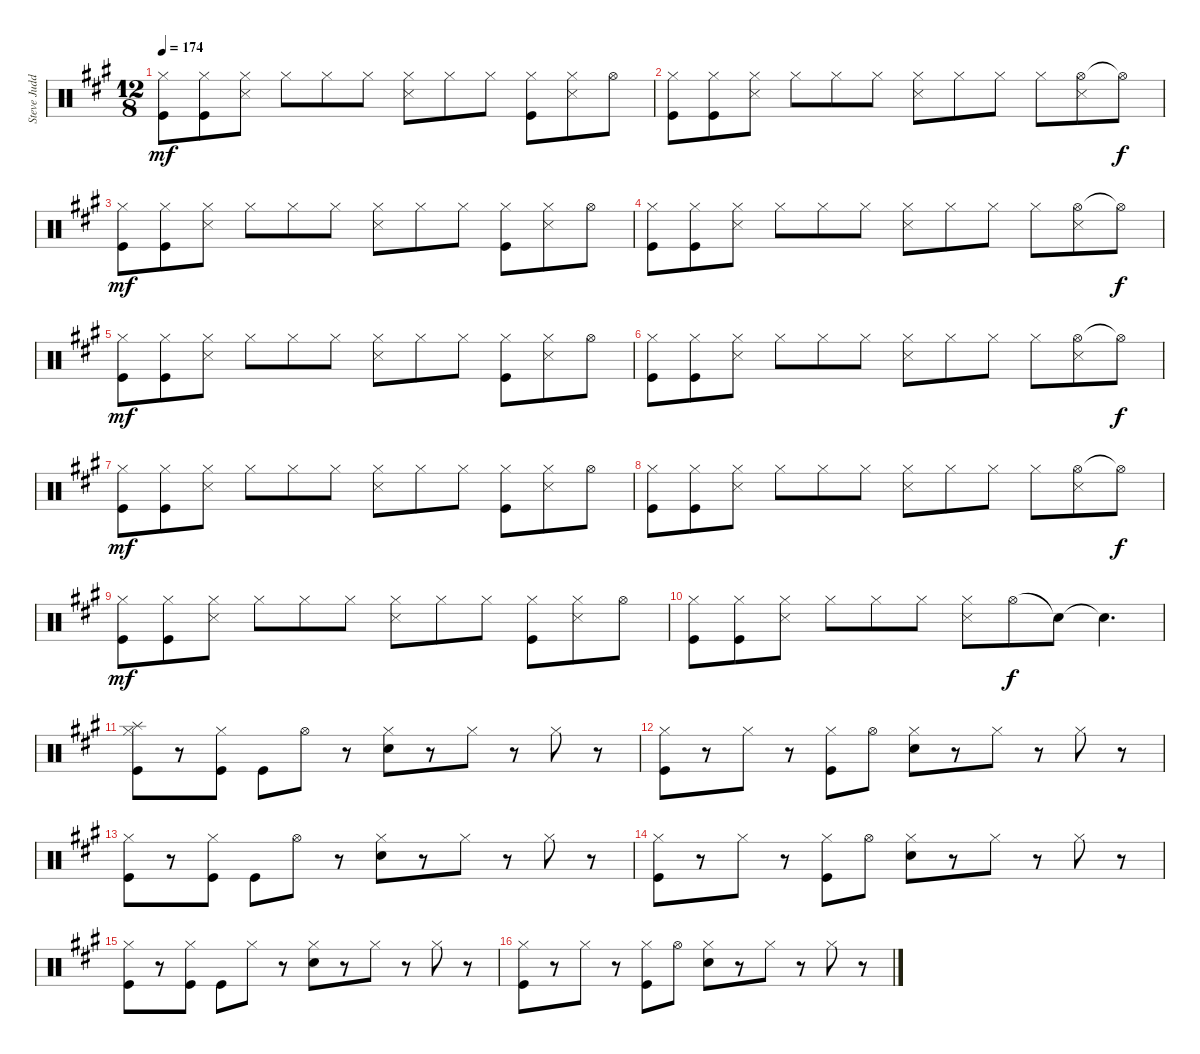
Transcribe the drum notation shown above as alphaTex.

\track ("Steve Judd (Drums)" "Steve Judd") {instrument percussion}
\staff {score}
\articulation defaults
\ts (12 8)
\tempo 174
\clef neutral
\ks a
("Hi-Hat (closed)" "Kick (hit)").8{dy mf} ("Hi-Hat (closed)" "Kick (hit)").8 ("Hi-Hat (closed)" "Snare (side stick) 3").8 "Hi-Hat (closed)".8 "Hi-Hat (closed)".8 "Hi-Hat (closed)".8 ("Hi-Hat (closed)" "Snare (side stick) 3").8 "Hi-Hat (closed)".8 "Hi-Hat (closed)".8 ("Hi-Hat (closed)" "Kick (hit)").8 ("Hi-Hat (closed)" "Snare (side stick) 3").8 "Hi-Hat (open)".8 |
("Hi-Hat (closed)" "Kick (hit)").8 ("Hi-Hat (closed)" "Kick (hit)").8 ("Hi-Hat (closed)" "Snare (side stick) 3").8 "Hi-Hat (closed)".8 "Hi-Hat (closed)".8 "Hi-Hat (closed)".8 ("Hi-Hat (closed)" "Snare (side stick) 3").8 "Hi-Hat (closed)".8 "Hi-Hat (closed)".8 "Hi-Hat (closed)".8 ("Hi-Hat (open)" "Snare (side stick) 3").8 "Hi-Hat (open)"{t}.8{dy f} |
("Hi-Hat (closed)" "Kick (hit)").8{dy mf} ("Hi-Hat (closed)" "Kick (hit)").8 ("Hi-Hat (closed)" "Snare (side stick) 3").8 "Hi-Hat (closed)".8 "Hi-Hat (closed)".8 "Hi-Hat (closed)".8 ("Hi-Hat (closed)" "Snare (side stick) 3").8 "Hi-Hat (closed)".8 "Hi-Hat (closed)".8 ("Hi-Hat (closed)" "Kick (hit)").8 ("Hi-Hat (closed)" "Snare (side stick) 3").8 "Hi-Hat (open)".8 |
("Hi-Hat (closed)" "Kick (hit)").8 ("Hi-Hat (closed)" "Kick (hit)").8 ("Hi-Hat (closed)" "Snare (side stick) 3").8 "Hi-Hat (closed)".8 "Hi-Hat (closed)".8 "Hi-Hat (closed)".8 ("Hi-Hat (closed)" "Snare (side stick) 3").8 "Hi-Hat (closed)".8 "Hi-Hat (closed)".8 "Hi-Hat (closed)".8 ("Hi-Hat (open)" "Snare (side stick) 3").8 "Hi-Hat (open)"{t}.8{dy f} |
("Hi-Hat (closed)" "Kick (hit)").8{dy mf} ("Hi-Hat (closed)" "Kick (hit)").8 ("Hi-Hat (closed)" "Snare (side stick) 3").8 "Hi-Hat (closed)".8 "Hi-Hat (closed)".8 "Hi-Hat (closed)".8 ("Hi-Hat (closed)" "Snare (side stick) 3").8 "Hi-Hat (closed)".8 "Hi-Hat (closed)".8 ("Hi-Hat (closed)" "Kick (hit)").8 ("Hi-Hat (closed)" "Snare (side stick) 3").8 "Hi-Hat (open)".8 |
("Hi-Hat (closed)" "Kick (hit)").8 ("Hi-Hat (closed)" "Kick (hit)").8 ("Hi-Hat (closed)" "Snare (side stick) 3").8 "Hi-Hat (closed)".8 "Hi-Hat (closed)".8 "Hi-Hat (closed)".8 ("Hi-Hat (closed)" "Snare (side stick) 3").8 "Hi-Hat (closed)".8 "Hi-Hat (closed)".8 "Hi-Hat (closed)".8 ("Hi-Hat (open)" "Snare (side stick) 3").8 "Hi-Hat (open)"{t}.8{dy f} |
("Hi-Hat (closed)" "Kick (hit)").8{dy mf} ("Hi-Hat (closed)" "Kick (hit)").8 ("Hi-Hat (closed)" "Snare (side stick) 3").8 "Hi-Hat (closed)".8 "Hi-Hat (closed)".8 "Hi-Hat (closed)".8 ("Hi-Hat (closed)" "Snare (side stick) 3").8 "Hi-Hat (closed)".8 "Hi-Hat (closed)".8 ("Hi-Hat (closed)" "Kick (hit)").8 ("Hi-Hat (closed)" "Snare (side stick) 3").8 "Hi-Hat (open)".8 |
("Hi-Hat (closed)" "Kick (hit)").8 ("Hi-Hat (closed)" "Kick (hit)").8 ("Hi-Hat (closed)" "Snare (side stick) 3").8 "Hi-Hat (closed)".8 "Hi-Hat (closed)".8 "Hi-Hat (closed)".8 ("Hi-Hat (closed)" "Snare (side stick) 3").8 "Hi-Hat (closed)".8 "Hi-Hat (closed)".8 "Hi-Hat (closed)".8 ("Hi-Hat (open)" "Snare (side stick) 3").8 "Hi-Hat (open)"{t}.8{dy f} |
("Hi-Hat (closed)" "Kick (hit)").8{dy mf} ("Hi-Hat (closed)" "Kick (hit)").8 ("Hi-Hat (closed)" "Snare (side stick) 3").8 "Hi-Hat (closed)".8 "Hi-Hat (closed)".8 "Hi-Hat (closed)".8 ("Hi-Hat (closed)" "Snare (side stick) 3").8 "Hi-Hat (closed)".8 "Hi-Hat (closed)".8 ("Hi-Hat (closed)" "Kick (hit)").8 ("Hi-Hat (closed)" "Snare (side stick) 3").8 "Hi-Hat (open)".8 |
("Hi-Hat (closed)" "Kick (hit)").8 ("Hi-Hat (closed)" "Kick (hit)").8 ("Hi-Hat (closed)" "Snare (side stick) 3").8 "Hi-Hat (closed)".8 "Hi-Hat (closed)".8 "Hi-Hat (closed)".8 ("Hi-Hat (closed)" "Snare (side stick) 3").8 "Hi-Hat (open)".8{dy f} "Snare (hit)"{t}.8 "Snare (hit)"{t}.4{d} |
("Splash (hit)" "Hi-Hat (closed)" "Kick (hit)").8 r.8 ("Hi-Hat (closed)" "Kick (hit)").8 "Kick (hit)".8 "Hi-Hat (open)".8 r.8 ("Snare (hit) 2" "Hi-Hat (closed)").8 r.8 "Hi-Hat (closed)".8 r.8 "Hi-Hat (closed)".8 r.8 |
("Hi-Hat (closed)" "Kick (hit)").8 r.8 "Hi-Hat (closed)".8 r.8 ("Hi-Hat (closed)" "Kick (hit)").8 "Hi-Hat (open)".8 ("Snare (hit) 2" "Hi-Hat (closed)").8 r.8 "Hi-Hat (closed)".8 r.8 "Hi-Hat (closed)".8 r.8 |
("Hi-Hat (closed)" "Kick (hit)").8 r.8 ("Hi-Hat (closed)" "Kick (hit)").8 "Kick (hit)".8 "Hi-Hat (open)".8 r.8 ("Snare (hit) 2" "Hi-Hat (closed)").8 r.8 "Hi-Hat (closed)".8 r.8 "Hi-Hat (closed)".8 r.8 |
("Hi-Hat (closed)" "Kick (hit)").8 r.8 "Hi-Hat (closed)".8 r.8 ("Hi-Hat (closed)" "Kick (hit)").8 "Hi-Hat (open)".8 ("Snare (hit) 2" "Hi-Hat (closed)").8 r.8 "Hi-Hat (closed)".8 r.8 "Hi-Hat (closed)".8 r.8 |
("Hi-Hat (closed)" "Kick (hit)").8 r.8 ("Hi-Hat (closed)" "Kick (hit)").8 "Kick (hit)".8 "Hi-Hat (closed)".8 r.8 ("Snare (hit) 2" "Hi-Hat (closed)").8 r.8 "Hi-Hat (closed)".8 r.8 "Hi-Hat (closed)".8 r.8 |
("Hi-Hat (closed)" "Kick (hit)").8 r.8 "Hi-Hat (closed)".8 r.8 ("Hi-Hat (closed)" "Kick (hit)").8 "Hi-Hat (open)".8 ("Snare (hit) 2" "Hi-Hat (closed)").8 r.8 "Hi-Hat (closed)".8 r.8 "Hi-Hat (closed)".8 r.8
